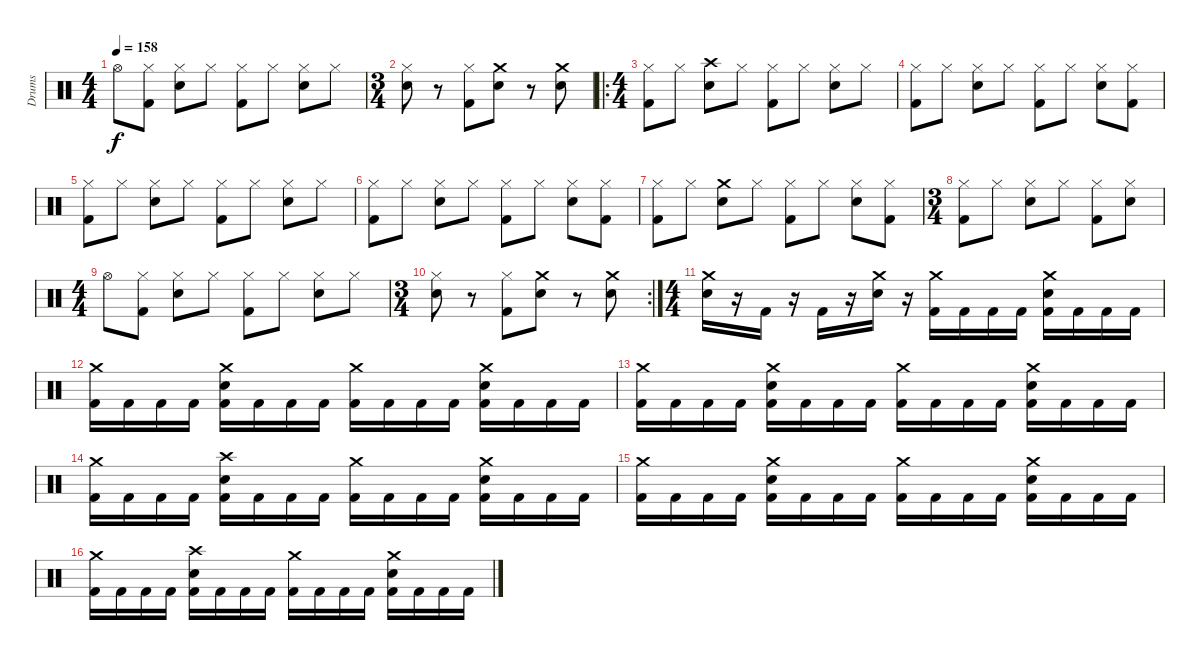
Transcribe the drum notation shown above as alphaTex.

\track ("Drums" "Drums") {instrument percussion}
\staff {score}
\articulation defaults
\ts (4 4)
\tempo 158
\clef neutral
\ks c "Hi-Hat (open)".8{dy f}
("Hi-Hat (closed)" "Kick (hit) 2").8 ("Hi-Hat (closed)" "Snare (hit) 2").8 "Hi-Hat (closed)".8 ("Hi-Hat (closed)" "Kick (hit) 2").8 "Hi-Hat (closed)".8 ("Hi-Hat (closed)" "Snare (hit) 2").8 "Hi-Hat (closed)".8 |
\ts (3 4)
("Hi-Hat (closed)" "Snare (hit) 2").8 r.8 ("Hi-Hat (closed)" "Kick (hit) 2").8 ("Crash medium (hit)" "Snare (hit) 2").8 r.8 ("Crash medium (hit)" "Snare (hit) 2").8 |
\ro
\ts (4 4)
("Hi-Hat (closed)" "Kick (hit) 2").8 "Hi-Hat (closed)".8 ("Crash high (hit)" "Snare (hit) 2").8 "Hi-Hat (closed)".8 ("Hi-Hat (closed)" "Kick (hit) 2").8 "Hi-Hat (closed)".8 ("Hi-Hat (closed)" "Snare (hit) 2").8 "Hi-Hat (closed)".8 |
("Hi-Hat (closed)" "Kick (hit) 2").8 "Hi-Hat (closed)".8 ("Hi-Hat (closed)" "Snare (hit) 2").8 "Hi-Hat (closed)".8 ("Hi-Hat (closed)" "Kick (hit) 2").8 "Hi-Hat (closed)".8 ("Hi-Hat (closed)" "Snare (hit) 2").8 ("Hi-Hat (closed)" "Kick (hit) 2").8 |
("Hi-Hat (closed)" "Kick (hit) 2").8 "Hi-Hat (closed)".8 ("Hi-Hat (closed)" "Snare (hit) 2").8 "Hi-Hat (closed)".8 ("Hi-Hat (closed)" "Kick (hit) 2").8 "Hi-Hat (closed)".8 ("Hi-Hat (closed)" "Snare (hit) 2").8 "Hi-Hat (closed)".8 |
("Hi-Hat (closed)" "Kick (hit) 2").8 "Hi-Hat (closed)".8 ("Hi-Hat (closed)" "Snare (hit) 2").8 "Hi-Hat (closed)".8 ("Hi-Hat (closed)" "Kick (hit) 2").8 "Hi-Hat (closed)".8 ("Hi-Hat (closed)" "Snare (hit) 2").8 ("Hi-Hat (closed)" "Kick (hit) 2").8 |
("Hi-Hat (closed)" "Kick (hit) 2").8 "Hi-Hat (closed)".8 ("Crash medium (hit)" "Snare (hit) 2").8 "Hi-Hat (closed)".8 ("Hi-Hat (closed)" "Kick (hit) 2").8 "Hi-Hat (closed)".8 ("Hi-Hat (closed)" "Snare (hit) 2").8 ("Hi-Hat (closed)" "Kick (hit) 2").8 |
\ts (3 4)
("Hi-Hat (closed)" "Kick (hit) 2").8 "Hi-Hat (closed)".8 ("Hi-Hat (closed)" "Snare (hit) 2").8 "Hi-Hat (closed)".8 ("Hi-Hat (closed)" "Kick (hit) 2").8 ("Hi-Hat (closed)" "Snare (hit) 2").8 |
\ts (4 4)
"Hi-Hat (open)".8 ("Hi-Hat (closed)" "Kick (hit) 2").8 ("Hi-Hat (closed)" "Snare (hit) 2").8 "Hi-Hat (closed)".8 ("Hi-Hat (closed)" "Kick (hit) 2").8 "Hi-Hat (closed)".8 ("Hi-Hat (closed)" "Snare (hit) 2").8 "Hi-Hat (closed)".8 |
\rc 2
\ts (3 4)
("Hi-Hat (closed)" "Snare (hit) 2").8 r.8 ("Hi-Hat (closed)" "Kick (hit) 2").8 ("Crash medium (hit)" "Snare (hit) 2").8 r.8 ("Crash medium (hit)" "Snare (hit) 2").8 |
\ts (4 4)
("Crash medium (hit)" "Snare (hit) 2").16 r.16 "Kick (hit) 2".16 r.16 "Kick (hit) 2".16 r.16 ("Crash medium (hit)" "Snare (hit) 2").16 r.16 ("Crash medium (hit)" "Kick (hit) 2").16 "Kick (hit) 2".16 "Kick (hit) 2".16 "Kick (hit) 2".16 ("Crash medium (hit)" "Snare (hit) 2" "Kick (hit) 2").16 "Kick (hit) 2".16 "Kick (hit) 2".16 "Kick (hit) 2".16 |
("Crash medium (hit)" "Kick (hit) 2").16 "Kick (hit) 2".16 "Kick (hit) 2".16 "Kick (hit) 2".16 ("Crash medium (hit)" "Snare (hit) 2" "Kick (hit) 2").16 "Kick (hit) 2".16 "Kick (hit) 2".16 "Kick (hit) 2".16 ("Crash medium (hit)" "Kick (hit) 2").16 "Kick (hit) 2".16 "Kick (hit) 2".16 "Kick (hit) 2".16 ("Crash medium (hit)" "Snare (hit) 2" "Kick (hit) 2").16 "Kick (hit) 2".16 "Kick (hit) 2".16 "Kick (hit) 2".16 |
("Crash medium (hit)" "Kick (hit) 2").16 "Kick (hit) 2".16 "Kick (hit) 2".16 "Kick (hit) 2".16 ("Crash medium (hit)" "Snare (hit) 2" "Kick (hit) 2").16 "Kick (hit) 2".16 "Kick (hit) 2".16 "Kick (hit) 2".16 ("Crash medium (hit)" "Kick (hit) 2").16 "Kick (hit) 2".16 "Kick (hit) 2".16 "Kick (hit) 2".16 ("Crash medium (hit)" "Snare (hit) 2" "Kick (hit) 2").16 "Kick (hit) 2".16 "Kick (hit) 2".16 "Kick (hit) 2".16 |
("Crash medium (hit)" "Kick (hit) 2").16 "Kick (hit) 2".16 "Kick (hit) 2".16 "Kick (hit) 2".16 ("Crash high (hit)" "Snare (hit) 2" "Kick (hit) 2").16 "Kick (hit) 2".16 "Kick (hit) 2".16 "Kick (hit) 2".16 ("Crash medium (hit)" "Kick (hit) 2").16 "Kick (hit) 2".16 "Kick (hit) 2".16 "Kick (hit) 2".16 ("Crash medium (hit)" "Snare (hit) 2" "Kick (hit) 2").16 "Kick (hit) 2".16 "Kick (hit) 2".16 "Kick (hit) 2".16 |
("Crash medium (hit)" "Kick (hit) 2").16 "Kick (hit) 2".16 "Kick (hit) 2".16 "Kick (hit) 2".16 ("Crash medium (hit)" "Snare (hit) 2" "Kick (hit) 2").16 "Kick (hit) 2".16 "Kick (hit) 2".16 "Kick (hit) 2".16 ("Crash medium (hit)" "Kick (hit) 2").16 "Kick (hit) 2".16 "Kick (hit) 2".16 "Kick (hit) 2".16 ("Crash medium (hit)" "Snare (hit) 2" "Kick (hit) 2").16 "Kick (hit) 2".16 "Kick (hit) 2".16 "Kick (hit) 2".16 |
("Crash medium (hit)" "Kick (hit) 2").16 "Kick (hit) 2".16 "Kick (hit) 2".16 "Kick (hit) 2".16 ("Crash high (hit)" "Snare (hit) 2" "Kick (hit) 2").16 "Kick (hit) 2".16 "Kick (hit) 2".16 "Kick (hit) 2".16 ("Crash medium (hit)" "Kick (hit) 2").16 "Kick (hit) 2".16 "Kick (hit) 2".16 "Kick (hit) 2".16 ("Crash medium (hit)" "Snare (hit) 2" "Kick (hit) 2").16 "Kick (hit) 2".16 "Kick (hit) 2".16 "Kick (hit) 2".16
